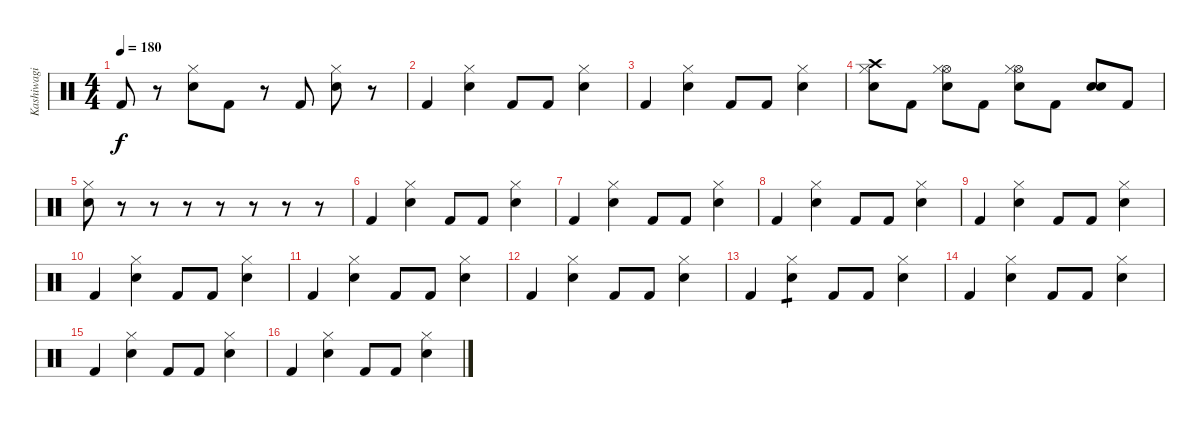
\track ("Kashiwagi Yuki" "Kashiwagi ") {instrument percussion}
\staff {score}
\articulation defaults
\ts (4 4)
\tempo 180
\clef neutral
\ks c "Kick (hit) 2".8{dy f}
r.8 ("Hi-Hat (closed)" "Electric Snare (hit)").8 "Kick (hit) 2".8 r.8 "Kick (hit) 2".8 ("Hi-Hat (closed)" "Electric Snare (hit)").8 r.8 |
"Kick (hit) 2".4 ("Hi-Hat (closed)" "Electric Snare (hit)").4 "Kick (hit) 2".8 "Kick (hit) 2".8 ("Hi-Hat (closed)" "Electric Snare (hit)").4 |
"Kick (hit) 2".4 ("Hi-Hat (closed)" "Electric Snare (hit)").4 "Kick (hit) 2".8 "Kick (hit) 2".8 ("Hi-Hat (closed)" "Electric Snare (hit)").4 |
("Crash high (hit)" "Hi-Hat (closed)" "Electric Snare (hit)").8 "Kick (hit) 2".8 ("Hi-Hat (open)" "Hi-Hat (closed)" "Electric Snare (hit)").8 "Kick (hit) 2".8 ("Hi-Hat (open)" "Hi-Hat (closed)" "Electric Snare (hit)").8 "Kick (hit) 2".8 ("Electric Snare (hit)" "Electric Snare (hit)").8 "Kick (hit) 2".8 |
("Hi-Hat (closed)" "Electric Snare (hit)").8 r.8 r.8 r.8 r.8 r.8 r.8 r.8 |
"Kick (hit) 2".4 ("Hi-Hat (closed)" "Electric Snare (hit)").4 "Kick (hit) 2".8 "Kick (hit) 2".8 ("Hi-Hat (closed)" "Electric Snare (hit)").4 |
"Kick (hit) 2".4 ("Hi-Hat (closed)" "Electric Snare (hit)").4 "Kick (hit) 2".8 "Kick (hit) 2".8 ("Hi-Hat (closed)" "Electric Snare (hit)").4 |
"Kick (hit) 2".4 ("Hi-Hat (closed)" "Electric Snare (hit)").4 "Kick (hit) 2".8 "Kick (hit) 2".8 ("Hi-Hat (closed)" "Electric Snare (hit)").4 |
"Kick (hit) 2".4 ("Hi-Hat (closed)" "Electric Snare (hit)").4 "Kick (hit) 2".8 "Kick (hit) 2".8 ("Hi-Hat (closed)" "Electric Snare (hit)").4 |
"Kick (hit) 2".4 ("Hi-Hat (closed)" "Electric Snare (hit)").4 "Kick (hit) 2".8 "Kick (hit) 2".8 ("Hi-Hat (closed)" "Electric Snare (hit)").4 |
"Kick (hit) 2".4 ("Hi-Hat (closed)" "Electric Snare (hit)").4 "Kick (hit) 2".8 "Kick (hit) 2".8 ("Hi-Hat (closed)" "Electric Snare (hit)").4 |
"Kick (hit) 2".4 ("Hi-Hat (closed)" "Electric Snare (hit)").4 "Kick (hit) 2".8 "Kick (hit) 2".8 ("Hi-Hat (closed)" "Electric Snare (hit)").4 |
"Kick (hit) 2".4 ("Hi-Hat (closed)" "Electric Snare (hit)").4{tp 1} "Kick (hit) 2".8 "Kick (hit) 2".8 ("Hi-Hat (closed)" "Electric Snare (hit)").4 |
"Kick (hit) 2".4 ("Hi-Hat (closed)" "Electric Snare (hit)").4 "Kick (hit) 2".8 "Kick (hit) 2".8 ("Hi-Hat (closed)" "Electric Snare (hit)").4 |
"Kick (hit) 2".4 ("Hi-Hat (closed)" "Electric Snare (hit)").4 "Kick (hit) 2".8 "Kick (hit) 2".8 ("Hi-Hat (closed)" "Electric Snare (hit)").4 |
"Kick (hit) 2".4 ("Hi-Hat (closed)" "Electric Snare (hit)").4 "Kick (hit) 2".8 "Kick (hit) 2".8 ("Hi-Hat (closed)" "Electric Snare (hit)").4
